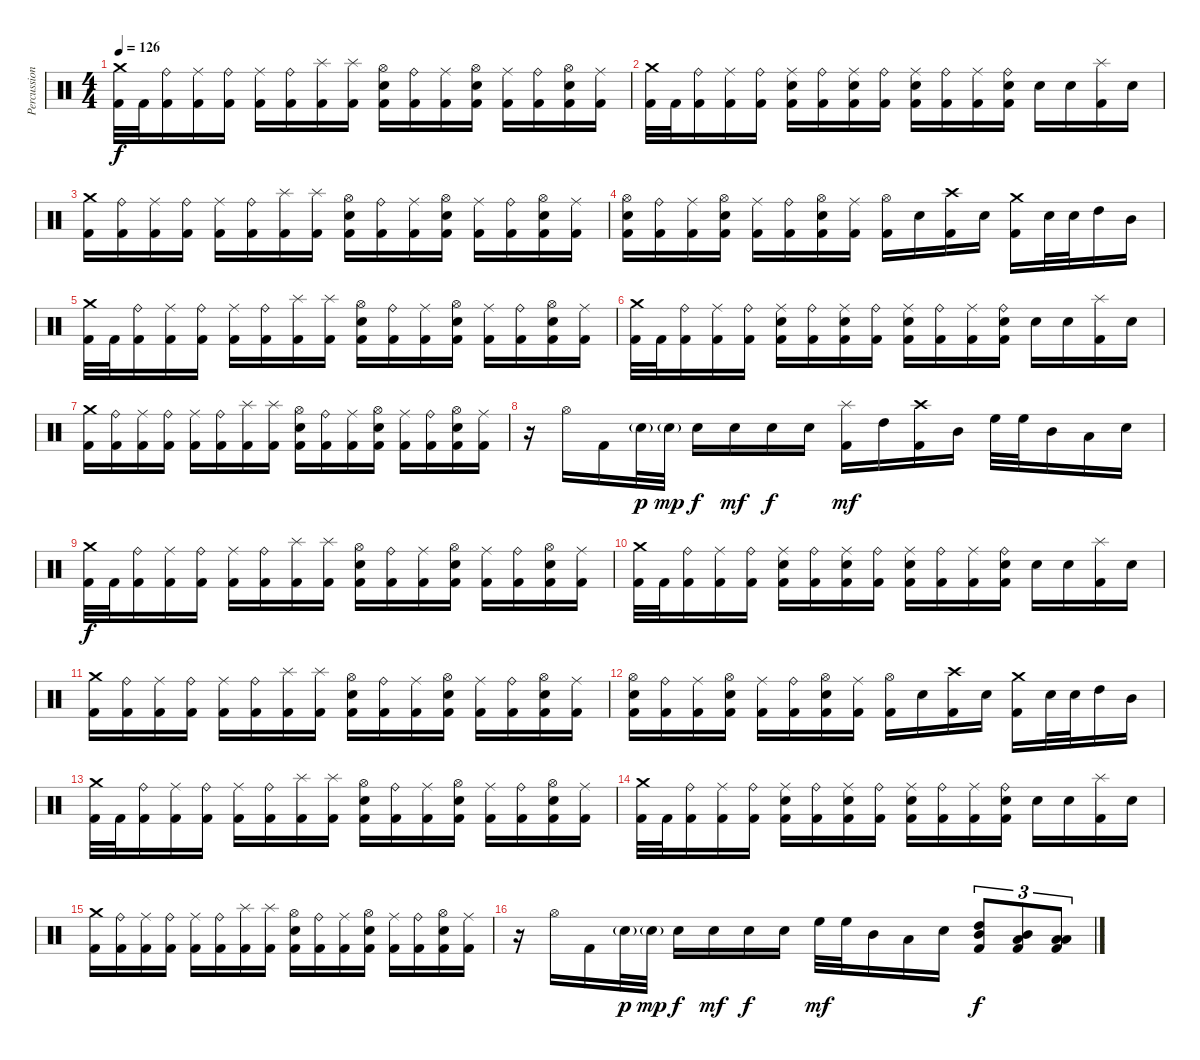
\track ("Percussion" "Percussion") {instrument percussion}
\staff {score}
\articulation defaults
\ts (4 4)
\tempo 126
\clef neutral
\ks c
("Crash medium (hit)" "Kick (hit) 2").32{dy f} "Kick (hit) 2".32 ("Ride (bell)" "Kick (hit) 2").16 ("Ride (middle)" "Kick (hit) 2").16 ("Ride (bell)" "Kick (hit) 2").16 ("Ride (middle)" "Kick (hit) 2").16 ("Ride (bell)" "Kick (hit) 2").16 ("Splash (hit)" "Kick (hit) 2").16 ("Splash (hit)" "Kick (hit) 2").16 ("Hi-Hat (open)" "Snare (hit) 2" "Kick (hit) 2").16 ("Ride (bell)" "Kick (hit) 2").16 ("Ride (middle)" "Kick (hit) 2").16 ("Hi-Hat (open)" "Snare (hit) 2" "Kick (hit) 2").16 ("Ride (middle)" "Kick (hit) 2").16 ("Ride (bell)" "Kick (hit) 2").16 ("Hi-Hat (open)" "Snare (hit) 2" "Kick (hit) 2").16 ("Ride (middle)" "Kick (hit) 2").16 |
("Crash medium (hit)" "Kick (hit) 2").32 "Kick (hit) 2".32 ("Ride (bell)" "Kick (hit) 2").16 ("Ride (middle)" "Kick (hit) 2").16 ("Ride (bell)" "Kick (hit) 2").16 ("Ride (middle)" "Snare (hit) 2" "Kick (hit) 2").16 ("Ride (bell)" "Kick (hit) 2").16 ("Ride (middle)" "Snare (hit) 2" "Kick (hit) 2").16 ("Ride (bell)" "Kick (hit) 2").16 ("Ride (middle)" "Snare (hit) 2" "Kick (hit) 2").16 ("Ride (bell)" "Kick (hit) 2").16 ("Ride (middle)" "Kick (hit) 2").16 ("Ride (bell)" "Snare (hit) 2" "Kick (hit) 2").16 "Snare (hit) 2".16 "Snare (hit) 2".16 ("Splash (hit)" "Kick (hit) 2").16 "Snare (hit) 2".16 |
("Crash medium (hit)" "Kick (hit) 2").16 ("Ride (bell)" "Kick (hit) 2").16 ("Ride (middle)" "Kick (hit) 2").16 ("Ride (bell)" "Kick (hit) 2").16 ("Ride (middle)" "Kick (hit) 2").16 ("Ride (bell)" "Kick (hit) 2").16 ("Splash (hit)" "Kick (hit) 2").16 ("Splash (hit)" "Kick (hit) 2").16 ("Hi-Hat (open)" "Snare (hit) 2" "Kick (hit) 2").16 ("Ride (bell)" "Kick (hit) 2").16 ("Ride (middle)" "Kick (hit) 2").16 ("Hi-Hat (open)" "Snare (hit) 2" "Kick (hit) 2").16 ("Ride (middle)" "Kick (hit) 2").16 ("Ride (bell)" "Kick (hit) 2").16 ("Hi-Hat (open)" "Snare (hit) 2" "Kick (hit) 2").16 ("Ride (middle)" "Kick (hit) 2").16 |
("Hi-Hat (open)" "Snare (hit) 2" "Kick (hit) 2").16 ("Ride (bell)" "Kick (hit) 2").16 ("Ride (middle)" "Kick (hit) 2").16 ("Hi-Hat (open)" "Snare (hit) 2" "Kick (hit) 2").16 ("Ride (middle)" "Kick (hit) 2").16 ("Ride (bell)" "Kick (hit) 2").16 ("Hi-Hat (open)" "Snare (hit) 2" "Kick (hit) 2").16 ("Ride (middle)" "Kick (hit) 2").16 ("Hi-Hat (open)" "Kick (hit) 2").16 "Snare (hit) 2".16 ("Crash high (hit)" "Kick (hit) 2").16 "Snare (hit) 2".16 ("Crash medium (hit)" "Kick (hit) 2").16 "Snare (hit) 2".32 "Snare (hit) 2".32 "High Tom (hit)".16 "Mid Tom (hit)".16 |
("Crash medium (hit)" "Kick (hit) 2").32 "Kick (hit) 2".32 ("Ride (bell)" "Kick (hit) 2").16 ("Ride (middle)" "Kick (hit) 2").16 ("Ride (bell)" "Kick (hit) 2").16 ("Ride (middle)" "Kick (hit) 2").16 ("Ride (bell)" "Kick (hit) 2").16 ("Splash (hit)" "Kick (hit) 2").16 ("Splash (hit)" "Kick (hit) 2").16 ("Hi-Hat (open)" "Snare (hit) 2" "Kick (hit) 2").16 ("Ride (bell)" "Kick (hit) 2").16 ("Ride (middle)" "Kick (hit) 2").16 ("Hi-Hat (open)" "Snare (hit) 2" "Kick (hit) 2").16 ("Ride (middle)" "Kick (hit) 2").16 ("Ride (bell)" "Kick (hit) 2").16 ("Hi-Hat (open)" "Snare (hit) 2" "Kick (hit) 2").16 ("Ride (middle)" "Kick (hit) 2").16 |
("Crash medium (hit)" "Kick (hit) 2").32 "Kick (hit) 2".32 ("Ride (bell)" "Kick (hit) 2").16 ("Ride (middle)" "Kick (hit) 2").16 ("Ride (bell)" "Kick (hit) 2").16 ("Ride (middle)" "Snare (hit) 2" "Kick (hit) 2").16 ("Ride (bell)" "Kick (hit) 2").16 ("Ride (middle)" "Snare (hit) 2" "Kick (hit) 2").16 ("Ride (bell)" "Kick (hit) 2").16 ("Ride (middle)" "Snare (hit) 2" "Kick (hit) 2").16 ("Ride (bell)" "Kick (hit) 2").16 ("Ride (middle)" "Kick (hit) 2").16 ("Ride (bell)" "Snare (hit) 2" "Kick (hit) 2").16 "Snare (hit) 2".16 "Snare (hit) 2".16 ("Splash (hit)" "Kick (hit) 2").16 "Snare (hit) 2".16 |
("Crash medium (hit)" "Kick (hit) 2").16 ("Ride (bell)" "Kick (hit) 2").16 ("Ride (middle)" "Kick (hit) 2").16 ("Ride (bell)" "Kick (hit) 2").16 ("Ride (middle)" "Kick (hit) 2").16 ("Ride (bell)" "Kick (hit) 2").16 ("Splash (hit)" "Kick (hit) 2").16 ("Splash (hit)" "Kick (hit) 2").16 ("Hi-Hat (open)" "Snare (hit) 2" "Kick (hit) 2").16 ("Ride (bell)" "Kick (hit) 2").16 ("Ride (middle)" "Kick (hit) 2").16 ("Hi-Hat (open)" "Snare (hit) 2" "Kick (hit) 2").16 ("Ride (middle)" "Kick (hit) 2").16 ("Ride (bell)" "Kick (hit) 2").16 ("Hi-Hat (open)" "Snare (hit) 2" "Kick (hit) 2").16 ("Ride (middle)" "Kick (hit) 2").16 |
r.16 "Hi-Hat (open)".16 "Kick (hit) 2".16 "Snare (hit) 2"{g}.32{dy p} "Snare (hit) 2"{g}.32{dy mp} "Snare (hit) 2".16{dy f} "Snare (hit) 2".16{dy mf} "Snare (hit) 2".16{dy f} "Snare (hit) 2".16 ("Splash (hit)" "Kick (hit) 2").16{dy mf} "High Tom (hit)".16 ("Crash high (hit)" "Kick (hit) 2").16 "Mid Tom (hit)".16 "High Floor Tom (hit)".32 "High Floor Tom (hit)".32 "Mid Tom (hit)".16 "Low Tom (hit)".16 "Snare (hit) 2".16 |
("Crash medium (hit)" "Kick (hit) 2").32{dy f} "Kick (hit) 2".32 ("Ride (bell)" "Kick (hit) 2").16 ("Ride (middle)" "Kick (hit) 2").16 ("Ride (bell)" "Kick (hit) 2").16 ("Ride (middle)" "Kick (hit) 2").16 ("Ride (bell)" "Kick (hit) 2").16 ("Splash (hit)" "Kick (hit) 2").16 ("Splash (hit)" "Kick (hit) 2").16 ("Hi-Hat (open)" "Snare (hit) 2" "Kick (hit) 2").16 ("Ride (bell)" "Kick (hit) 2").16 ("Ride (middle)" "Kick (hit) 2").16 ("Hi-Hat (open)" "Snare (hit) 2" "Kick (hit) 2").16 ("Ride (middle)" "Kick (hit) 2").16 ("Ride (bell)" "Kick (hit) 2").16 ("Hi-Hat (open)" "Snare (hit) 2" "Kick (hit) 2").16 ("Ride (middle)" "Kick (hit) 2").16 |
("Crash medium (hit)" "Kick (hit) 2").32 "Kick (hit) 2".32 ("Ride (bell)" "Kick (hit) 2").16 ("Ride (middle)" "Kick (hit) 2").16 ("Ride (bell)" "Kick (hit) 2").16 ("Ride (middle)" "Snare (hit) 2" "Kick (hit) 2").16 ("Ride (bell)" "Kick (hit) 2").16 ("Ride (middle)" "Snare (hit) 2" "Kick (hit) 2").16 ("Ride (bell)" "Kick (hit) 2").16 ("Ride (middle)" "Snare (hit) 2" "Kick (hit) 2").16 ("Ride (bell)" "Kick (hit) 2").16 ("Ride (middle)" "Kick (hit) 2").16 ("Ride (bell)" "Snare (hit) 2" "Kick (hit) 2").16 "Snare (hit) 2".16 "Snare (hit) 2".16 ("Splash (hit)" "Kick (hit) 2").16 "Snare (hit) 2".16 |
("Crash medium (hit)" "Kick (hit) 2").16 ("Ride (bell)" "Kick (hit) 2").16 ("Ride (middle)" "Kick (hit) 2").16 ("Ride (bell)" "Kick (hit) 2").16 ("Ride (middle)" "Kick (hit) 2").16 ("Ride (bell)" "Kick (hit) 2").16 ("Splash (hit)" "Kick (hit) 2").16 ("Splash (hit)" "Kick (hit) 2").16 ("Hi-Hat (open)" "Snare (hit) 2" "Kick (hit) 2").16 ("Ride (bell)" "Kick (hit) 2").16 ("Ride (middle)" "Kick (hit) 2").16 ("Hi-Hat (open)" "Snare (hit) 2" "Kick (hit) 2").16 ("Ride (middle)" "Kick (hit) 2").16 ("Ride (bell)" "Kick (hit) 2").16 ("Hi-Hat (open)" "Snare (hit) 2" "Kick (hit) 2").16 ("Ride (middle)" "Kick (hit) 2").16 |
("Hi-Hat (open)" "Snare (hit) 2" "Kick (hit) 2").16 ("Ride (bell)" "Kick (hit) 2").16 ("Ride (middle)" "Kick (hit) 2").16 ("Hi-Hat (open)" "Snare (hit) 2" "Kick (hit) 2").16 ("Ride (middle)" "Kick (hit) 2").16 ("Ride (bell)" "Kick (hit) 2").16 ("Hi-Hat (open)" "Snare (hit) 2" "Kick (hit) 2").16 ("Ride (middle)" "Kick (hit) 2").16 ("Hi-Hat (open)" "Kick (hit) 2").16 "Snare (hit) 2".16 ("Crash high (hit)" "Kick (hit) 2").16 "Snare (hit) 2".16 ("Crash medium (hit)" "Kick (hit) 2").16 "Snare (hit) 2".32 "Snare (hit) 2".32 "High Tom (hit)".16 "Mid Tom (hit)".16 |
("Crash medium (hit)" "Kick (hit) 2").32 "Kick (hit) 2".32 ("Ride (bell)" "Kick (hit) 2").16 ("Ride (middle)" "Kick (hit) 2").16 ("Ride (bell)" "Kick (hit) 2").16 ("Ride (middle)" "Kick (hit) 2").16 ("Ride (bell)" "Kick (hit) 2").16 ("Splash (hit)" "Kick (hit) 2").16 ("Splash (hit)" "Kick (hit) 2").16 ("Hi-Hat (open)" "Snare (hit) 2" "Kick (hit) 2").16 ("Ride (bell)" "Kick (hit) 2").16 ("Ride (middle)" "Kick (hit) 2").16 ("Hi-Hat (open)" "Snare (hit) 2" "Kick (hit) 2").16 ("Ride (middle)" "Kick (hit) 2").16 ("Ride (bell)" "Kick (hit) 2").16 ("Hi-Hat (open)" "Snare (hit) 2" "Kick (hit) 2").16 ("Ride (middle)" "Kick (hit) 2").16 |
("Crash medium (hit)" "Kick (hit) 2").32 "Kick (hit) 2".32 ("Ride (bell)" "Kick (hit) 2").16 ("Ride (middle)" "Kick (hit) 2").16 ("Ride (bell)" "Kick (hit) 2").16 ("Ride (middle)" "Snare (hit) 2" "Kick (hit) 2").16 ("Ride (bell)" "Kick (hit) 2").16 ("Ride (middle)" "Snare (hit) 2" "Kick (hit) 2").16 ("Ride (bell)" "Kick (hit) 2").16 ("Ride (middle)" "Snare (hit) 2" "Kick (hit) 2").16 ("Ride (bell)" "Kick (hit) 2").16 ("Ride (middle)" "Kick (hit) 2").16 ("Ride (bell)" "Snare (hit) 2" "Kick (hit) 2").16 "Snare (hit) 2".16 "Snare (hit) 2".16 ("Splash (hit)" "Kick (hit) 2").16 "Snare (hit) 2".16 |
("Crash medium (hit)" "Kick (hit) 2").16 ("Ride (bell)" "Kick (hit) 2").16 ("Ride (middle)" "Kick (hit) 2").16 ("Ride (bell)" "Kick (hit) 2").16 ("Ride (middle)" "Kick (hit) 2").16 ("Ride (bell)" "Kick (hit) 2").16 ("Splash (hit)" "Kick (hit) 2").16 ("Splash (hit)" "Kick (hit) 2").16 ("Hi-Hat (open)" "Snare (hit) 2" "Kick (hit) 2").16 ("Ride (bell)" "Kick (hit) 2").16 ("Ride (middle)" "Kick (hit) 2").16 ("Hi-Hat (open)" "Snare (hit) 2" "Kick (hit) 2").16 ("Ride (middle)" "Kick (hit) 2").16 ("Ride (bell)" "Kick (hit) 2").16 ("Hi-Hat (open)" "Snare (hit) 2" "Kick (hit) 2").16 ("Ride (middle)" "Kick (hit) 2").16 |
r.16 "Hi-Hat (open)".16 "Kick (hit) 2".16 "Snare (hit) 2"{g}.32{dy p} "Snare (hit) 2"{g}.32{dy mp} "Snare (hit) 2".16{dy f} "Snare (hit) 2".16{dy mf} "Snare (hit) 2".16{dy f} "Snare (hit) 2".16 "High Floor Tom (hit)".32{dy mf} "High Floor Tom (hit)".32 "Mid Tom (hit)".16 "Low Tom (hit)".16 "Snare (hit) 2".16 ("Mid Tom (hit)" "High Tom (hit)" "Kick (hit) 2").8{tu (3 2) dy f} ("Mid Tom (hit)" "Low Tom (hit)" "Kick (hit) 2").8{tu (3 2)} ("Low Floor Tom (hit)" "Low Tom (hit)" "Kick (hit) 2").8{tu (3 2)}
